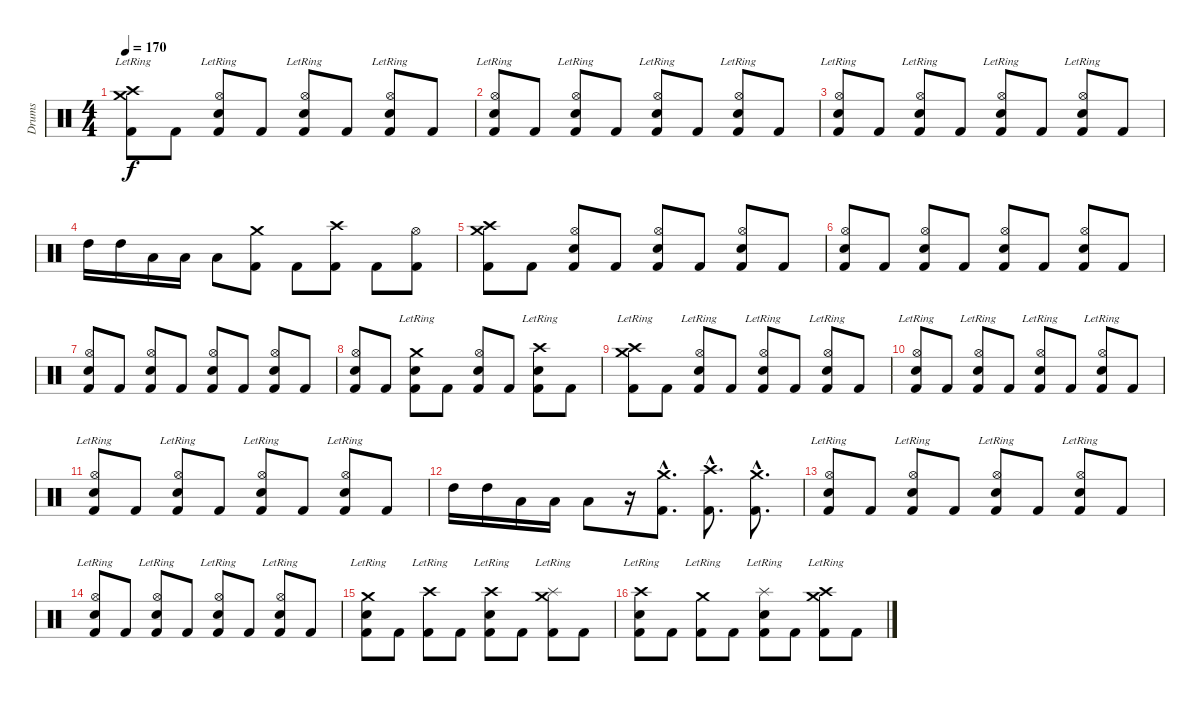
\track ("Drums" "Drums") {instrument percussion}
\staff {score}
\articulation defaults
\ts (4 4)
\tempo 170
\clef neutral
\ks c
("Crash medium (hit)"{lr} "Crash high (hit)"{lr} "Kick (hit) 2").8{dy f} "Kick (hit) 2".8 ("Hi-Hat (open)"{lr} "Electric Snare (hit)" "Kick (hit) 2").8 "Kick (hit) 2".8 ("Hi-Hat (open)"{lr} "Electric Snare (hit)" "Kick (hit) 2").8 "Kick (hit) 2".8 ("Hi-Hat (open)"{lr} "Electric Snare (hit)" "Kick (hit) 2").8 "Kick (hit) 2".8 |
("Hi-Hat (open)"{lr} "Electric Snare (hit)" "Kick (hit) 2").8 "Kick (hit) 2".8 ("Hi-Hat (open)"{lr} "Electric Snare (hit)" "Kick (hit) 2").8 "Kick (hit) 2".8 ("Hi-Hat (open)"{lr} "Electric Snare (hit)" "Kick (hit) 2").8 "Kick (hit) 2".8 ("Hi-Hat (open)"{lr} "Electric Snare (hit)" "Kick (hit) 2").8 "Kick (hit) 2".8 |
("Hi-Hat (open)"{lr} "Electric Snare (hit)" "Kick (hit) 2").8 "Kick (hit) 2".8 ("Hi-Hat (open)"{lr} "Electric Snare (hit)" "Kick (hit) 2").8 "Kick (hit) 2".8 ("Hi-Hat (open)"{lr} "Electric Snare (hit)" "Kick (hit) 2").8 "Kick (hit) 2".8 ("Hi-Hat (open)"{lr} "Electric Snare (hit)" "Kick (hit) 2").8 "Kick (hit) 2".8 |
"High Tom (hit)".16 "High Tom (hit)".16 "Low Tom (hit)".16 "Low Tom (hit)".16 "Low Floor Tom (hit)".8 ("Crash medium (hit)" "Kick (hit) 2").8 "Kick (hit) 2".8 ("Crash high (hit)" "Kick (hit) 2").8 "Kick (hit) 2".8 ("Hi-Hat (open)" "Kick (hit) 2").8 |
("Crash medium (hit)" "Crash high (hit)" "Kick (hit) 2").8 "Kick (hit) 2".8 ("Hi-Hat (open)" "Electric Snare (hit)" "Kick (hit) 2").8 "Kick (hit) 2".8 ("Hi-Hat (open)" "Electric Snare (hit)" "Kick (hit) 2").8 "Kick (hit) 2".8 ("Hi-Hat (open)" "Electric Snare (hit)" "Kick (hit) 2").8 "Kick (hit) 2".8 |
("Hi-Hat (open)" "Electric Snare (hit)" "Kick (hit) 2").8 "Kick (hit) 2".8 ("Hi-Hat (open)" "Electric Snare (hit)" "Kick (hit) 2").8 "Kick (hit) 2".8 ("Hi-Hat (open)" "Electric Snare (hit)" "Kick (hit) 2").8 "Kick (hit) 2".8 ("Hi-Hat (open)" "Electric Snare (hit)" "Kick (hit) 2").8 "Kick (hit) 2".8 |
("Hi-Hat (open)" "Electric Snare (hit)" "Kick (hit) 2").8 "Kick (hit) 2".8 ("Hi-Hat (open)" "Electric Snare (hit)" "Kick (hit) 2").8 "Kick (hit) 2".8 ("Hi-Hat (open)" "Electric Snare (hit)" "Kick (hit) 2").8 "Kick (hit) 2".8 ("Hi-Hat (open)" "Electric Snare (hit)" "Kick (hit) 2").8 "Kick (hit) 2".8 |
("Hi-Hat (open)" "Electric Snare (hit)" "Kick (hit) 2").8 "Kick (hit) 2".8 ("Crash medium (hit)"{lr} "Electric Snare (hit)" "Kick (hit) 2").8 "Kick (hit) 2".8 ("Hi-Hat (open)" "Electric Snare (hit)" "Kick (hit) 2").8 "Kick (hit) 2".8 ("Crash high (hit)"{lr} "Electric Snare (hit)" "Kick (hit) 2").8 "Kick (hit) 2".8 |
("Crash medium (hit)"{lr} "Crash high (hit)"{lr} "Kick (hit) 2").8 "Kick (hit) 2".8 ("Hi-Hat (open)"{lr} "Electric Snare (hit)" "Kick (hit) 2").8 "Kick (hit) 2".8 ("Hi-Hat (open)"{lr} "Electric Snare (hit)" "Kick (hit) 2").8 "Kick (hit) 2".8 ("Hi-Hat (open)"{lr} "Electric Snare (hit)" "Kick (hit) 2").8 "Kick (hit) 2".8 |
("Hi-Hat (open)"{lr} "Electric Snare (hit)" "Kick (hit) 2").8 "Kick (hit) 2".8 ("Hi-Hat (open)"{lr} "Electric Snare (hit)" "Kick (hit) 2").8 "Kick (hit) 2".8 ("Hi-Hat (open)"{lr} "Electric Snare (hit)" "Kick (hit) 2").8 "Kick (hit) 2".8 ("Hi-Hat (open)"{lr} "Electric Snare (hit)" "Kick (hit) 2").8 "Kick (hit) 2".8 |
("Hi-Hat (open)"{lr} "Electric Snare (hit)" "Kick (hit) 2").8 "Kick (hit) 2".8 ("Hi-Hat (open)"{lr} "Electric Snare (hit)" "Kick (hit) 2").8 "Kick (hit) 2".8 ("Hi-Hat (open)"{lr} "Electric Snare (hit)" "Kick (hit) 2").8 "Kick (hit) 2".8 ("Hi-Hat (open)"{lr} "Electric Snare (hit)" "Kick (hit) 2").8 "Kick (hit) 2".8 |
"High Tom (hit)".16 "High Tom (hit)".16 "Low Tom (hit)".16 "Low Tom (hit)".16 "Low Floor Tom (hit)".8 r.16 ("Crash medium (hit)"{hac} "Kick (hit) 2"{hac}).8{d} ("Crash high (hit)"{hac} "Kick (hit) 2"{hac}).8{d} ("Crash medium (hit)"{hac} "Kick (hit) 2"{hac}).8{d} |
("Hi-Hat (open)"{lr} "Electric Snare (hit)" "Kick (hit) 2").8 "Kick (hit) 2".8 ("Hi-Hat (open)"{lr} "Electric Snare (hit)" "Kick (hit) 2").8 "Kick (hit) 2".8 ("Hi-Hat (open)"{lr} "Electric Snare (hit)" "Kick (hit) 2").8 "Kick (hit) 2".8 ("Hi-Hat (open)"{lr} "Electric Snare (hit)" "Kick (hit) 2").8 "Kick (hit) 2".8 |
("Hi-Hat (open)"{lr} "Electric Snare (hit)" "Kick (hit) 2").8 "Kick (hit) 2".8 ("Hi-Hat (open)"{lr} "Electric Snare (hit)" "Kick (hit) 2").8 "Kick (hit) 2".8 ("Hi-Hat (open)"{lr} "Electric Snare (hit)" "Kick (hit) 2").8 "Kick (hit) 2".8 ("Hi-Hat (open)"{lr} "Electric Snare (hit)" "Kick (hit) 2").8 "Kick (hit) 2".8 |
("Crash medium (hit)"{lr} "Electric Snare (hit)" "Kick (hit) 2").8 "Kick (hit) 2".8 ("Crash high (hit)"{lr} "Kick (hit) 2").8 "Kick (hit) 2".8 ("Crash high (hit)"{lr} "Electric Snare (hit)" "Kick (hit) 2").8 "Kick (hit) 2".8 ("Splash (hit)"{lr} "Crash medium (hit)"{lr} "Kick (hit) 2").8 "Kick (hit) 2".8 |
("Crash high (hit)"{lr} "Electric Snare (hit)" "Kick (hit) 2").8 "Kick (hit) 2".8 ("Crash medium (hit)"{lr} "Kick (hit) 2").8 "Kick (hit) 2".8 ("Splash (hit)"{lr} "Electric Snare (hit)" "Kick (hit) 2").8 "Kick (hit) 2".8 ("Crash medium (hit)"{lr} "Crash high (hit)"{lr} "Kick (hit) 2").8 "Kick (hit) 2".8
